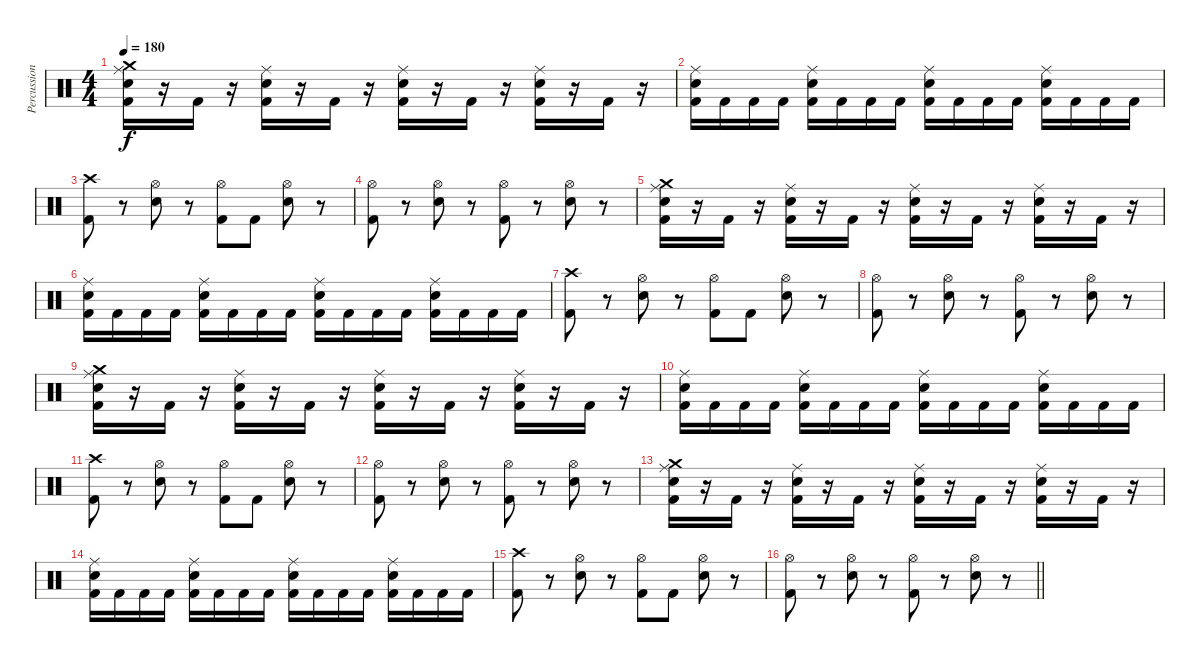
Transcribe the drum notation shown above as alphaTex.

\track ("Percussion" "Percussion") {instrument percussion}
\staff {score}
\articulation defaults
\ts (4 4)
\tempo 180
\clef neutral
\ks c
("Crash medium (hit)" "Ride (middle)" "Snare (hit) 2" "Kick (hit) 2").16{dy f} r.16 "Kick (hit) 2".16 r.16 ("Ride (middle)" "Snare (hit) 2" "Kick (hit) 2").16 r.16 "Kick (hit) 2".16 r.16 ("Ride (middle)" "Snare (hit) 2" "Kick (hit) 2").16 r.16 "Kick (hit) 2".16 r.16 ("Ride (middle)" "Snare (hit) 2" "Kick (hit) 2").16 r.16 "Kick (hit) 2".16 r.16 |
("Ride (middle)" "Snare (hit) 2" "Kick (hit) 2").16 "Kick (hit) 2".16 "Kick (hit) 2".16 "Kick (hit) 2".16 ("Ride (middle)" "Snare (hit) 2" "Kick (hit) 2").16 "Kick (hit) 2".16 "Kick (hit) 2".16 "Kick (hit) 2".16 ("Ride (middle)" "Snare (hit) 2" "Kick (hit) 2").16 "Kick (hit) 2".16 "Kick (hit) 2".16 "Kick (hit) 2".16 ("Ride (middle)" "Snare (hit) 2" "Kick (hit) 2").16 "Kick (hit) 2".16 "Kick (hit) 2".16 "Kick (hit) 2".16 |
("Crash high (hit)" "Kick (hit) 2").8 r.8 ("Hi-Hat (open)" "Snare (hit) 2").8 r.8 ("Hi-Hat (open)" "Kick (hit) 2").8 "Kick (hit) 2".8 ("Hi-Hat (open)" "Snare (hit) 2").8 r.8 |
("Hi-Hat (open)" "Kick (hit) 2").8 r.8 ("Hi-Hat (open)" "Snare (hit) 2").8 r.8 ("Hi-Hat (open)" "Kick (hit) 2").8 r.8 ("Hi-Hat (open)" "Snare (hit) 2").8 r.8 |
("Crash medium (hit)" "Ride (middle)" "Snare (hit) 2" "Kick (hit) 2").16 r.16 "Kick (hit) 2".16 r.16 ("Ride (middle)" "Snare (hit) 2" "Kick (hit) 2").16 r.16 "Kick (hit) 2".16 r.16 ("Ride (middle)" "Snare (hit) 2" "Kick (hit) 2").16 r.16 "Kick (hit) 2".16 r.16 ("Ride (middle)" "Snare (hit) 2" "Kick (hit) 2").16 r.16 "Kick (hit) 2".16 r.16 |
("Ride (middle)" "Snare (hit) 2" "Kick (hit) 2").16 "Kick (hit) 2".16 "Kick (hit) 2".16 "Kick (hit) 2".16 ("Ride (middle)" "Snare (hit) 2" "Kick (hit) 2").16 "Kick (hit) 2".16 "Kick (hit) 2".16 "Kick (hit) 2".16 ("Ride (middle)" "Snare (hit) 2" "Kick (hit) 2").16 "Kick (hit) 2".16 "Kick (hit) 2".16 "Kick (hit) 2".16 ("Ride (middle)" "Snare (hit) 2" "Kick (hit) 2").16 "Kick (hit) 2".16 "Kick (hit) 2".16 "Kick (hit) 2".16 |
("Crash high (hit)" "Kick (hit) 2").8 r.8 ("Hi-Hat (open)" "Snare (hit) 2").8 r.8 ("Hi-Hat (open)" "Kick (hit) 2").8 "Kick (hit) 2".8 ("Hi-Hat (open)" "Snare (hit) 2").8 r.8 |
("Hi-Hat (open)" "Kick (hit) 2").8 r.8 ("Hi-Hat (open)" "Snare (hit) 2").8 r.8 ("Hi-Hat (open)" "Kick (hit) 2").8 r.8 ("Hi-Hat (open)" "Snare (hit) 2").8 r.8 |
("Crash medium (hit)" "Ride (middle)" "Snare (hit) 2" "Kick (hit) 2").16 r.16 "Kick (hit) 2".16 r.16 ("Ride (middle)" "Snare (hit) 2" "Kick (hit) 2").16 r.16 "Kick (hit) 2".16 r.16 ("Ride (middle)" "Snare (hit) 2" "Kick (hit) 2").16 r.16 "Kick (hit) 2".16 r.16 ("Ride (middle)" "Snare (hit) 2" "Kick (hit) 2").16 r.16 "Kick (hit) 2".16 r.16 |
("Ride (middle)" "Snare (hit) 2" "Kick (hit) 2").16 "Kick (hit) 2".16 "Kick (hit) 2".16 "Kick (hit) 2".16 ("Ride (middle)" "Snare (hit) 2" "Kick (hit) 2").16 "Kick (hit) 2".16 "Kick (hit) 2".16 "Kick (hit) 2".16 ("Ride (middle)" "Snare (hit) 2" "Kick (hit) 2").16 "Kick (hit) 2".16 "Kick (hit) 2".16 "Kick (hit) 2".16 ("Ride (middle)" "Snare (hit) 2" "Kick (hit) 2").16 "Kick (hit) 2".16 "Kick (hit) 2".16 "Kick (hit) 2".16 |
("Crash high (hit)" "Kick (hit) 2").8 r.8 ("Hi-Hat (open)" "Snare (hit) 2").8 r.8 ("Hi-Hat (open)" "Kick (hit) 2").8 "Kick (hit) 2".8 ("Hi-Hat (open)" "Snare (hit) 2").8 r.8 |
("Hi-Hat (open)" "Kick (hit) 2").8 r.8 ("Hi-Hat (open)" "Snare (hit) 2").8 r.8 ("Hi-Hat (open)" "Kick (hit) 2").8 r.8 ("Hi-Hat (open)" "Snare (hit) 2").8 r.8 |
("Crash medium (hit)" "Ride (middle)" "Snare (hit) 2" "Kick (hit) 2").16 r.16 "Kick (hit) 2".16 r.16 ("Ride (middle)" "Snare (hit) 2" "Kick (hit) 2").16 r.16 "Kick (hit) 2".16 r.16 ("Ride (middle)" "Snare (hit) 2" "Kick (hit) 2").16 r.16 "Kick (hit) 2".16 r.16 ("Ride (middle)" "Snare (hit) 2" "Kick (hit) 2").16 r.16 "Kick (hit) 2".16 r.16 |
("Ride (middle)" "Snare (hit) 2" "Kick (hit) 2").16 "Kick (hit) 2".16 "Kick (hit) 2".16 "Kick (hit) 2".16 ("Ride (middle)" "Snare (hit) 2" "Kick (hit) 2").16 "Kick (hit) 2".16 "Kick (hit) 2".16 "Kick (hit) 2".16 ("Ride (middle)" "Snare (hit) 2" "Kick (hit) 2").16 "Kick (hit) 2".16 "Kick (hit) 2".16 "Kick (hit) 2".16 ("Ride (middle)" "Snare (hit) 2" "Kick (hit) 2").16 "Kick (hit) 2".16 "Kick (hit) 2".16 "Kick (hit) 2".16 |
("Crash high (hit)" "Kick (hit) 2").8 r.8 ("Hi-Hat (open)" "Snare (hit) 2").8 r.8 ("Hi-Hat (open)" "Kick (hit) 2").8 "Kick (hit) 2".8 ("Hi-Hat (open)" "Snare (hit) 2").8 r.8 |
\barLineRight lightlight
("Hi-Hat (open)" "Kick (hit) 2").8 r.8 ("Hi-Hat (open)" "Snare (hit) 2").8 r.8 ("Hi-Hat (open)" "Kick (hit) 2").8 r.8 ("Hi-Hat (open)" "Snare (hit) 2").8 r.8
